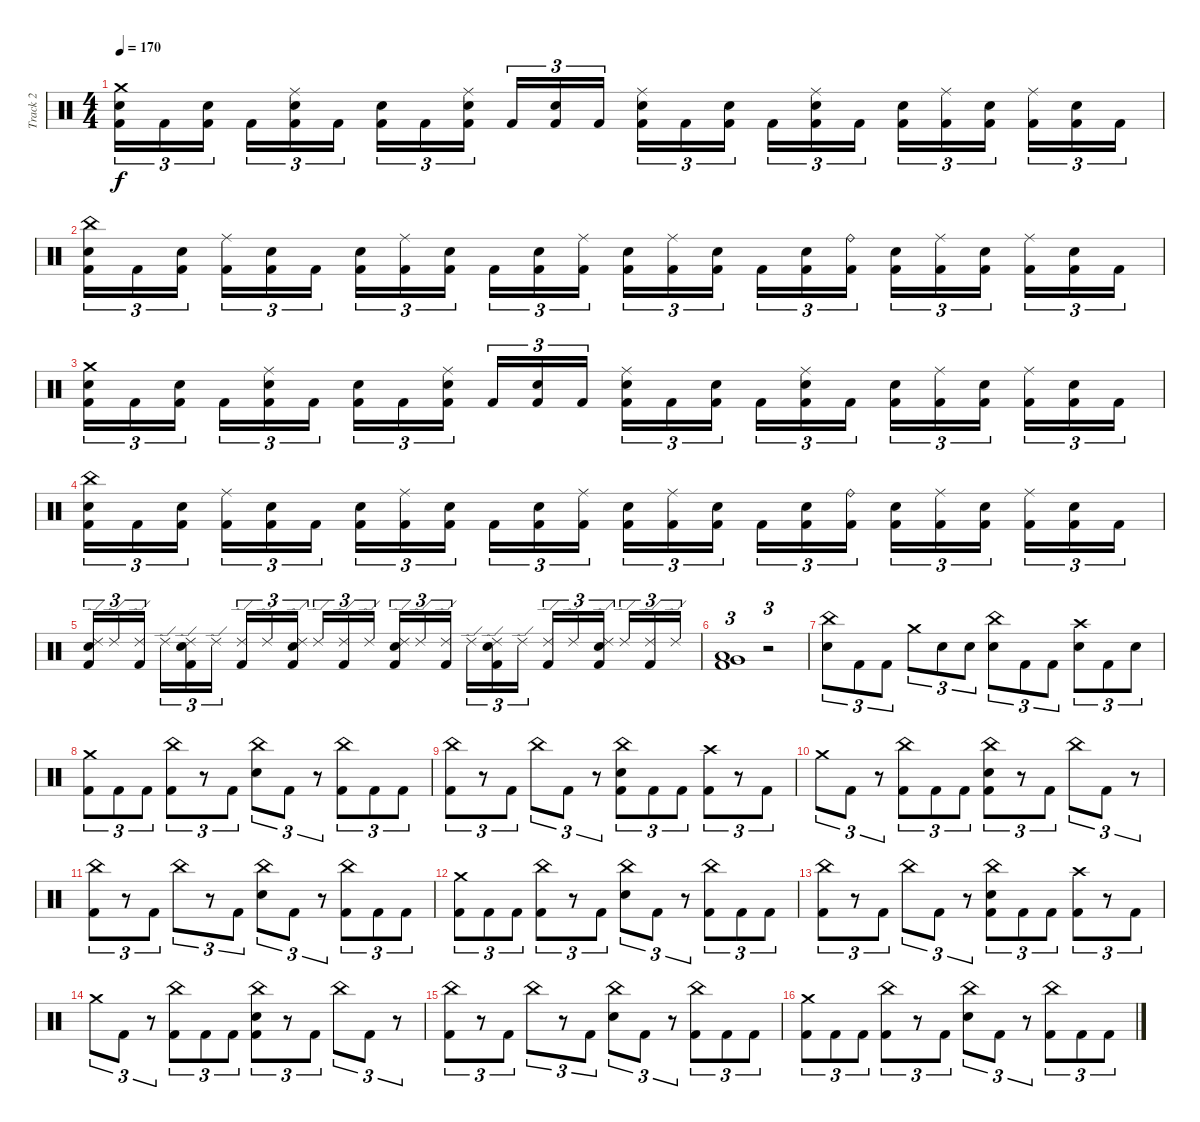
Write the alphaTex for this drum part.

\track ("Track 2" "Track 2") {instrument percussion}
\staff {score}
\articulation defaults
\ts (4 4)
\tempo 170
\clef neutral
\ks c
("Crash medium (hit)" "Electric Snare (hit)" "Kick (hit) 2").16{tu (3 2) dy f} "Kick (hit) 2".16{tu (3 2)} ("Electric Snare (hit)" "Kick (hit) 2").16{tu (3 2)} "Kick (hit) 2".16{tu (3 2)} ("Ride (middle)" "Electric Snare (hit)" "Kick (hit) 2").16{tu (3 2)} "Kick (hit) 2".16{tu (3 2)} ("Electric Snare (hit)" "Kick (hit) 2").16{tu (3 2)} "Kick (hit) 2".16{tu (3 2)} ("Ride (middle)" "Electric Snare (hit)" "Kick (hit) 2").16{tu (3 2)} "Kick (hit) 2".16{tu (3 2)} ("Electric Snare (hit)" "Kick (hit) 2").16{tu (3 2)} "Kick (hit) 2".16{tu (3 2)} ("Ride (middle)" "Electric Snare (hit)" "Kick (hit) 2").16{tu (3 2)} "Kick (hit) 2".16{tu (3 2)} ("Electric Snare (hit)" "Kick (hit) 2").16{tu (3 2)} "Kick (hit) 2".16{tu (3 2)} ("Ride (middle)" "Electric Snare (hit)" "Kick (hit) 2").16{tu (3 2)} "Kick (hit) 2".16{tu (3 2)} ("Electric Snare (hit)" "Kick (hit) 2").16{tu (3 2)} ("Ride (middle)" "Kick (hit) 2").16{tu (3 2)} ("Electric Snare (hit)" "Kick (hit) 2").16{tu (3 2)} ("Ride (middle)" "Kick (hit) 2").16{tu (3 2)} ("Electric Snare (hit)" "Kick (hit) 2").16{tu (3 2)} "Kick (hit) 2".16{tu (3 2)} |
("China (hit)" "Electric Snare (hit)" "Kick (hit) 2").16{tu (3 2)} "Kick (hit) 2".16{tu (3 2)} ("Electric Snare (hit)" "Kick (hit) 2").16{tu (3 2)} ("Ride (middle)" "Kick (hit) 2").16{tu (3 2)} ("Electric Snare (hit)" "Kick (hit) 2").16{tu (3 2)} "Kick (hit) 2".16{tu (3 2)} ("Electric Snare (hit)" "Kick (hit) 2").16{tu (3 2)} ("Ride (middle)" "Kick (hit) 2").16{tu (3 2)} ("Electric Snare (hit)" "Kick (hit) 2").16{tu (3 2)} "Kick (hit) 2".16{tu (3 2)} ("Electric Snare (hit)" "Kick (hit) 2").16{tu (3 2)} ("Ride (middle)" "Kick (hit) 2").16{tu (3 2)} ("Electric Snare (hit)" "Kick (hit) 2").16{tu (3 2)} ("Ride (middle)" "Kick (hit) 2").16{tu (3 2)} ("Electric Snare (hit)" "Kick (hit) 2").16{tu (3 2)} "Kick (hit) 2".16{tu (3 2)} ("Electric Snare (hit)" "Kick (hit) 2").16{tu (3 2)} ("Ride (bell)" "Kick (hit) 2").16{tu (3 2)} ("Electric Snare (hit)" "Kick (hit) 2").16{tu (3 2)} ("Ride (middle)" "Kick (hit) 2").16{tu (3 2)} ("Electric Snare (hit)" "Kick (hit) 2").16{tu (3 2)} ("Ride (middle)" "Kick (hit) 2").16{tu (3 2)} ("Electric Snare (hit)" "Kick (hit) 2").16{tu (3 2)} "Kick (hit) 2".16{tu (3 2)} |
("Crash medium (hit)" "Electric Snare (hit)" "Kick (hit) 2").16{tu (3 2)} "Kick (hit) 2".16{tu (3 2)} ("Electric Snare (hit)" "Kick (hit) 2").16{tu (3 2)} "Kick (hit) 2".16{tu (3 2)} ("Ride (middle)" "Electric Snare (hit)" "Kick (hit) 2").16{tu (3 2)} "Kick (hit) 2".16{tu (3 2)} ("Electric Snare (hit)" "Kick (hit) 2").16{tu (3 2)} "Kick (hit) 2".16{tu (3 2)} ("Ride (middle)" "Electric Snare (hit)" "Kick (hit) 2").16{tu (3 2)} "Kick (hit) 2".16{tu (3 2)} ("Electric Snare (hit)" "Kick (hit) 2").16{tu (3 2)} "Kick (hit) 2".16{tu (3 2)} ("Ride (middle)" "Electric Snare (hit)" "Kick (hit) 2").16{tu (3 2)} "Kick (hit) 2".16{tu (3 2)} ("Electric Snare (hit)" "Kick (hit) 2").16{tu (3 2)} "Kick (hit) 2".16{tu (3 2)} ("Ride (middle)" "Electric Snare (hit)" "Kick (hit) 2").16{tu (3 2)} "Kick (hit) 2".16{tu (3 2)} ("Electric Snare (hit)" "Kick (hit) 2").16{tu (3 2)} ("Ride (middle)" "Kick (hit) 2").16{tu (3 2)} ("Electric Snare (hit)" "Kick (hit) 2").16{tu (3 2)} ("Ride (middle)" "Kick (hit) 2").16{tu (3 2)} ("Electric Snare (hit)" "Kick (hit) 2").16{tu (3 2)} "Kick (hit) 2".16{tu (3 2)} |
("China (hit)" "Electric Snare (hit)" "Kick (hit) 2").16{tu (3 2)} "Kick (hit) 2".16{tu (3 2)} ("Electric Snare (hit)" "Kick (hit) 2").16{tu (3 2)} ("Ride (middle)" "Kick (hit) 2").16{tu (3 2)} ("Electric Snare (hit)" "Kick (hit) 2").16{tu (3 2)} "Kick (hit) 2".16{tu (3 2)} ("Electric Snare (hit)" "Kick (hit) 2").16{tu (3 2)} ("Ride (middle)" "Kick (hit) 2").16{tu (3 2)} ("Electric Snare (hit)" "Kick (hit) 2").16{tu (3 2)} "Kick (hit) 2".16{tu (3 2)} ("Electric Snare (hit)" "Kick (hit) 2").16{tu (3 2)} ("Ride (middle)" "Kick (hit) 2").16{tu (3 2)} ("Electric Snare (hit)" "Kick (hit) 2").16{tu (3 2)} ("Ride (middle)" "Kick (hit) 2").16{tu (3 2)} ("Electric Snare (hit)" "Kick (hit) 2").16{tu (3 2)} "Kick (hit) 2".16{tu (3 2)} ("Electric Snare (hit)" "Kick (hit) 2").16{tu (3 2)} ("Ride (bell)" "Kick (hit) 2").16{tu (3 2)} ("Electric Snare (hit)" "Kick (hit) 2").16{tu (3 2)} ("Ride (middle)" "Kick (hit) 2").16{tu (3 2)} ("Electric Snare (hit)" "Kick (hit) 2").16{tu (3 2)} ("Ride (middle)" "Kick (hit) 2").16{tu (3 2)} ("Electric Snare (hit)" "Kick (hit) 2").16{tu (3 2)} "Kick (hit) 2".16{tu (3 2)} |
("Ride (edge) 2" "Electric Snare (hit)" "Kick (hit) 2").16{tu (3 2)} "Ride (edge) 2".16{tu (3 2)} ("Ride (edge) 2" "Kick (hit) 2").16{tu (3 2)} "Ride (edge) 2".16{tu (3 2)} ("Ride (edge) 2" "Electric Snare (hit)" "Kick (hit) 2").16{tu (3 2)} "Ride (edge) 2".16{tu (3 2)} ("Ride (edge) 2" "Kick (hit) 2").16{tu (3 2)} "Ride (edge) 2".16{tu (3 2)} ("Ride (edge) 2" "Electric Snare (hit)" "Kick (hit) 2").16{tu (3 2)} "Ride (edge) 2".16{tu (3 2)} ("Ride (edge) 2" "Kick (hit) 2").16{tu (3 2)} "Ride (edge) 2".16{tu (3 2)} ("Ride (edge) 2" "Electric Snare (hit)" "Kick (hit) 2").16{tu (3 2)} "Ride (edge) 2".16{tu (3 2)} ("Ride (edge) 2" "Kick (hit) 2").16{tu (3 2)} "Ride (edge) 2".16{tu (3 2)} ("Ride (edge) 2" "Electric Snare (hit)" "Kick (hit) 2").16{tu (3 2)} "Ride (edge) 2".16{tu (3 2)} ("Ride (edge) 2" "Kick (hit) 2").16{tu (3 2)} "Ride (edge) 2".16{tu (3 2)} ("Ride (edge) 2" "Electric Snare (hit)" "Kick (hit) 2").16{tu (3 2)} "Ride (edge) 2".16{tu (3 2)} ("Ride (edge) 2" "Kick (hit) 2").16{tu (3 2)} "Ride (edge) 2".16{tu (3 2)} |
("Very Low Tom (hit)" "Low Floor Tom (hit)" "Kick (hit) 2").1{tu (3 2)} r.2{tu (3 2)} |
("China (hit)" "Electric Snare (hit)").8{tu (3 2)} "Kick (hit) 2".8{tu (3 2)} "Kick (hit) 2".8{tu (3 2)} "Crash medium (hit)".8{tu (3 2)} "Electric Snare (hit)".8{tu (3 2)} "Electric Snare (hit)".8{tu (3 2)} ("China (hit)" "Electric Snare (hit)").8{tu (3 2)} "Kick (hit) 2".8{tu (3 2)} "Kick (hit) 2".8{tu (3 2)} ("Crash high (hit)" "Electric Snare (hit)").8{tu (3 2)} "Kick (hit) 2".8{tu (3 2)} "Electric Snare (hit)".8{tu (3 2)} |
("Crash medium (hit)" "Kick (hit) 2").8{tu (3 2)} "Kick (hit) 2".8{tu (3 2)} "Kick (hit) 2".8{tu (3 2)} ("China (hit)" "Kick (hit) 2").8{tu (3 2)} r.8{tu (3 2)} "Kick (hit) 2".8{tu (3 2)} ("China (hit)" "Electric Snare (hit)").8{tu (3 2)} "Kick (hit) 2".8{tu (3 2)} r.8{tu (3 2)} ("China (hit)" "Kick (hit) 2").8{tu (3 2)} "Kick (hit) 2".8{tu (3 2)} "Kick (hit) 2".8{tu (3 2)} |
("China (hit)" "Kick (hit) 2").8{tu (3 2)} r.8{tu (3 2)} "Kick (hit) 2".8{tu (3 2)} "China (hit)".8{tu (3 2)} "Kick (hit) 2".8{tu (3 2)} r.8{tu (3 2)} ("China (hit)" "Electric Snare (hit)" "Kick (hit) 2").8{tu (3 2)} "Kick (hit) 2".8{tu (3 2)} "Kick (hit) 2".8{tu (3 2)} ("Crash high (hit)" "Kick (hit) 2").8{tu (3 2)} r.8{tu (3 2)} "Kick (hit) 2".8{tu (3 2)} |
"Crash medium (hit)".8{tu (3 2)} "Kick (hit) 2".8{tu (3 2)} r.8{tu (3 2)} ("China (hit)" "Kick (hit) 2").8{tu (3 2)} "Kick (hit) 2".8{tu (3 2)} "Kick (hit) 2".8{tu (3 2)} ("China (hit)" "Electric Snare (hit)" "Kick (hit) 2").8{tu (3 2)} r.8{tu (3 2)} "Kick (hit) 2".8{tu (3 2)} "China (hit)".8{tu (3 2)} "Kick (hit) 2".8{tu (3 2)} r.8{tu (3 2)} |
("China (hit)" "Kick (hit) 2").8{tu (3 2)} r.8{tu (3 2)} "Kick (hit) 2".8{tu (3 2)} "China (hit)".8{tu (3 2)} r.8{tu (3 2)} "Kick (hit) 2".8{tu (3 2)} ("China (hit)" "Electric Snare (hit)").8{tu (3 2)} "Kick (hit) 2".8{tu (3 2)} r.8{tu (3 2)} ("China (hit)" "Kick (hit) 2").8{tu (3 2)} "Kick (hit) 2".8{tu (3 2)} "Kick (hit) 2".8{tu (3 2)} |
("Crash medium (hit)" "Kick (hit) 2").8{tu (3 2)} "Kick (hit) 2".8{tu (3 2)} "Kick (hit) 2".8{tu (3 2)} ("China (hit)" "Kick (hit) 2").8{tu (3 2)} r.8{tu (3 2)} "Kick (hit) 2".8{tu (3 2)} ("China (hit)" "Electric Snare (hit)").8{tu (3 2)} "Kick (hit) 2".8{tu (3 2)} r.8{tu (3 2)} ("China (hit)" "Kick (hit) 2").8{tu (3 2)} "Kick (hit) 2".8{tu (3 2)} "Kick (hit) 2".8{tu (3 2)} |
("China (hit)" "Kick (hit) 2").8{tu (3 2)} r.8{tu (3 2)} "Kick (hit) 2".8{tu (3 2)} "China (hit)".8{tu (3 2)} "Kick (hit) 2".8{tu (3 2)} r.8{tu (3 2)} ("China (hit)" "Electric Snare (hit)" "Kick (hit) 2").8{tu (3 2)} "Kick (hit) 2".8{tu (3 2)} "Kick (hit) 2".8{tu (3 2)} ("Crash high (hit)" "Kick (hit) 2").8{tu (3 2)} r.8{tu (3 2)} "Kick (hit) 2".8{tu (3 2)} |
"Crash medium (hit)".8{tu (3 2)} "Kick (hit) 2".8{tu (3 2)} r.8{tu (3 2)} ("China (hit)" "Kick (hit) 2").8{tu (3 2)} "Kick (hit) 2".8{tu (3 2)} "Kick (hit) 2".8{tu (3 2)} ("China (hit)" "Electric Snare (hit)" "Kick (hit) 2").8{tu (3 2)} r.8{tu (3 2)} "Kick (hit) 2".8{tu (3 2)} "China (hit)".8{tu (3 2)} "Kick (hit) 2".8{tu (3 2)} r.8{tu (3 2)} |
("China (hit)" "Kick (hit) 2").8{tu (3 2)} r.8{tu (3 2)} "Kick (hit) 2".8{tu (3 2)} "China (hit)".8{tu (3 2)} r.8{tu (3 2)} "Kick (hit) 2".8{tu (3 2)} ("China (hit)" "Electric Snare (hit)").8{tu (3 2)} "Kick (hit) 2".8{tu (3 2)} r.8{tu (3 2)} ("China (hit)" "Kick (hit) 2").8{tu (3 2)} "Kick (hit) 2".8{tu (3 2)} "Kick (hit) 2".8{tu (3 2)} |
("Crash medium (hit)" "Kick (hit) 2").8{tu (3 2)} "Kick (hit) 2".8{tu (3 2)} "Kick (hit) 2".8{tu (3 2)} ("China (hit)" "Kick (hit) 2").8{tu (3 2)} r.8{tu (3 2)} "Kick (hit) 2".8{tu (3 2)} ("China (hit)" "Electric Snare (hit)").8{tu (3 2)} "Kick (hit) 2".8{tu (3 2)} r.8{tu (3 2)} ("China (hit)" "Kick (hit) 2").8{tu (3 2)} "Kick (hit) 2".8{tu (3 2)} "Kick (hit) 2".8{tu (3 2)}
